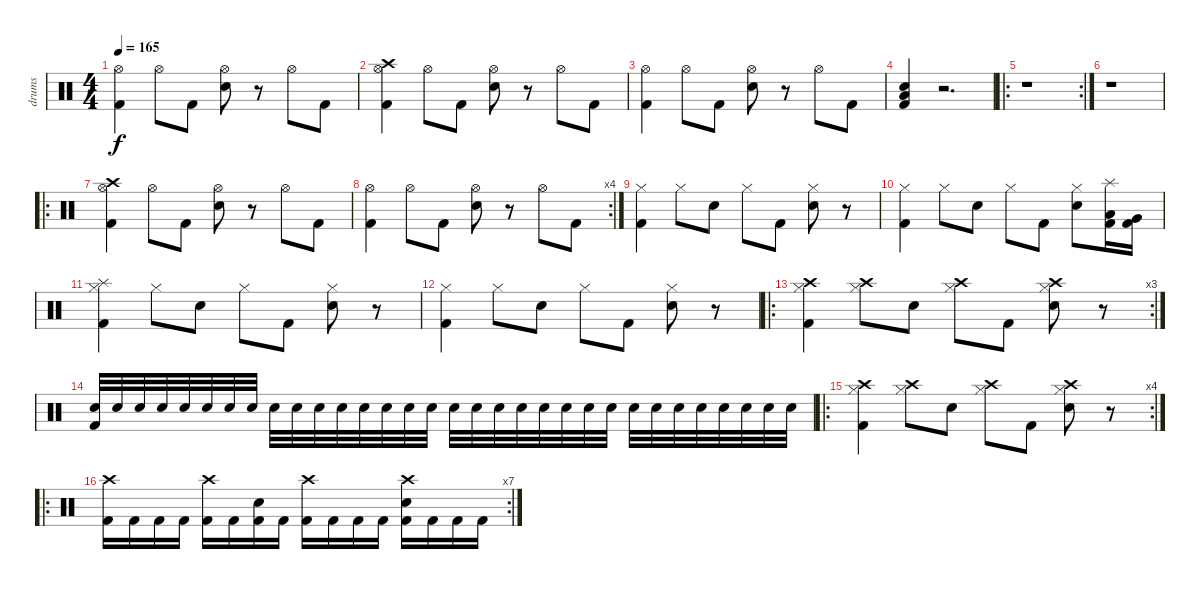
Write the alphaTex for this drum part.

\track ("drums" "drums") {instrument percussion}
\staff {score}
\articulation defaults
\ts (4 4)
\tempo 165
\clef neutral
\ks c
("Hi-Hat (open)" "Kick (hit) 2").4{dy f} "Hi-Hat (open)".8 "Kick (hit) 2".8 ("Hi-Hat (open)" "Electric Snare (hit)").8 r.8 "Hi-Hat (open)".8 "Kick (hit) 2".8 |
("Crash high (hit)" "Hi-Hat (open)" "Kick (hit) 2").4 "Hi-Hat (open)".8 "Kick (hit) 2".8 ("Hi-Hat (open)" "Electric Snare (hit)").8 r.8 "Hi-Hat (open)".8 "Kick (hit) 2".8 |
("Hi-Hat (open)" "Kick (hit) 2").4 "Hi-Hat (open)".8 "Kick (hit) 2".8 ("Hi-Hat (open)" "Electric Snare (hit)").8 r.8 "Hi-Hat (open)".8 "Kick (hit) 2".8 |
("Electric Snare (hit)" "Low Floor Tom (hit)" "Kick (hit) 2").4 r.2{d} |
\ro
\rc 2
r.1 |
r.1 |
\ro
("Crash high (hit)" "Hi-Hat (open)" "Kick (hit) 2").4 "Hi-Hat (open)".8 "Kick (hit) 2".8 ("Hi-Hat (open)" "Electric Snare (hit)").8 r.8 "Hi-Hat (open)".8 "Kick (hit) 2".8 |
\rc 4
("Hi-Hat (open)" "Kick (hit) 2").4 "Hi-Hat (open)".8 "Kick (hit) 2".8 ("Hi-Hat (open)" "Electric Snare (hit)").8 r.8 "Hi-Hat (open)".8 "Kick (hit) 2".8 |
("Hi-Hat (closed)" "Kick (hit) 2").4 "Hi-Hat (closed)".8 "Electric Snare (hit)".8 "Hi-Hat (closed)".8 "Kick (hit) 2".8 ("Hi-Hat (closed)" "Electric Snare (hit)").8 r.8 |
("Hi-Hat (closed)" "Kick (hit) 2").4 "Hi-Hat (closed)".8 "Electric Snare (hit)".8 "Hi-Hat (closed)".8 "Kick (hit) 2".8 ("Hi-Hat (closed)" "Electric Snare (hit)").8 ("Splash (hit)" "Low Tom (hit)" "Kick (hit) 2").16 ("Very Low Tom (hit)" "Kick (hit) 2").16 |
("Splash (hit)" "Hi-Hat (closed)" "Kick (hit) 2").4 "Hi-Hat (closed)".8 "Electric Snare (hit)".8 "Hi-Hat (closed)".8 "Kick (hit) 2".8 ("Hi-Hat (closed)" "Electric Snare (hit)").8 r.8 |
("Hi-Hat (closed)" "Kick (hit) 2").4 "Hi-Hat (closed)".8 "Electric Snare (hit)".8 "Hi-Hat (closed)".8 "Kick (hit) 2".8 ("Hi-Hat (closed)" "Electric Snare (hit)").8 r.8 |
\ro
\rc 3
("Crash high (hit)" "Hi-Hat (closed)" "Kick (hit) 2").4 ("Crash high (hit)" "Hi-Hat (closed)").8 "Electric Snare (hit)".8 ("Crash high (hit)" "Hi-Hat (closed)").8 "Kick (hit) 2".8 ("Crash high (hit)" "Hi-Hat (closed)" "Electric Snare (hit)").8 r.8 |
("Electric Snare (hit)" "Kick (hit) 2").32 "Electric Snare (hit)".32 "Electric Snare (hit)".32 "Electric Snare (hit)".32 "Electric Snare (hit)".32 "Electric Snare (hit)".32 "Electric Snare (hit)".32 "Electric Snare (hit)".32 "Electric Snare (hit)".32 "Electric Snare (hit)".32 "Electric Snare (hit)".32 "Electric Snare (hit)".32 "Electric Snare (hit)".32 "Electric Snare (hit)".32 "Electric Snare (hit)".32 "Electric Snare (hit)".32 "Electric Snare (hit)".32 "Electric Snare (hit)".32 "Electric Snare (hit)".32 "Electric Snare (hit)".32 "Electric Snare (hit)".32 "Electric Snare (hit)".32 "Electric Snare (hit)".32 "Electric Snare (hit)".32 "Electric Snare (hit)".32 "Electric Snare (hit)".32 "Electric Snare (hit)".32 "Electric Snare (hit)".32 "Electric Snare (hit)".32 "Electric Snare (hit)".32 "Electric Snare (hit)".32 "Electric Snare (hit)".32 |
\ro
\rc 4
("Crash high (hit)" "Hi-Hat (closed)" "Kick (hit) 2").4 ("Crash high (hit)" "Hi-Hat (closed)").8 "Electric Snare (hit)".8 ("Crash high (hit)" "Hi-Hat (closed)").8 "Kick (hit) 2".8 ("Crash high (hit)" "Hi-Hat (closed)" "Electric Snare (hit)").8 r.8 |
\ro
\rc 7
("Crash high (hit)" "Kick (hit) 2").16 "Kick (hit) 2".16 "Kick (hit) 2".16 "Kick (hit) 2".16 ("Crash high (hit)" "Kick (hit) 2").16 "Kick (hit) 2".16 ("Electric Snare (hit)" "Kick (hit) 2").16 "Kick (hit) 2".16 ("Crash high (hit)" "Kick (hit) 2").16 "Kick (hit) 2".16 "Kick (hit) 2".16 "Kick (hit) 2".16 ("Crash high (hit)" "Electric Snare (hit)" "Kick (hit) 2").16 "Kick (hit) 2".16 "Kick (hit) 2".16 "Kick (hit) 2".16
